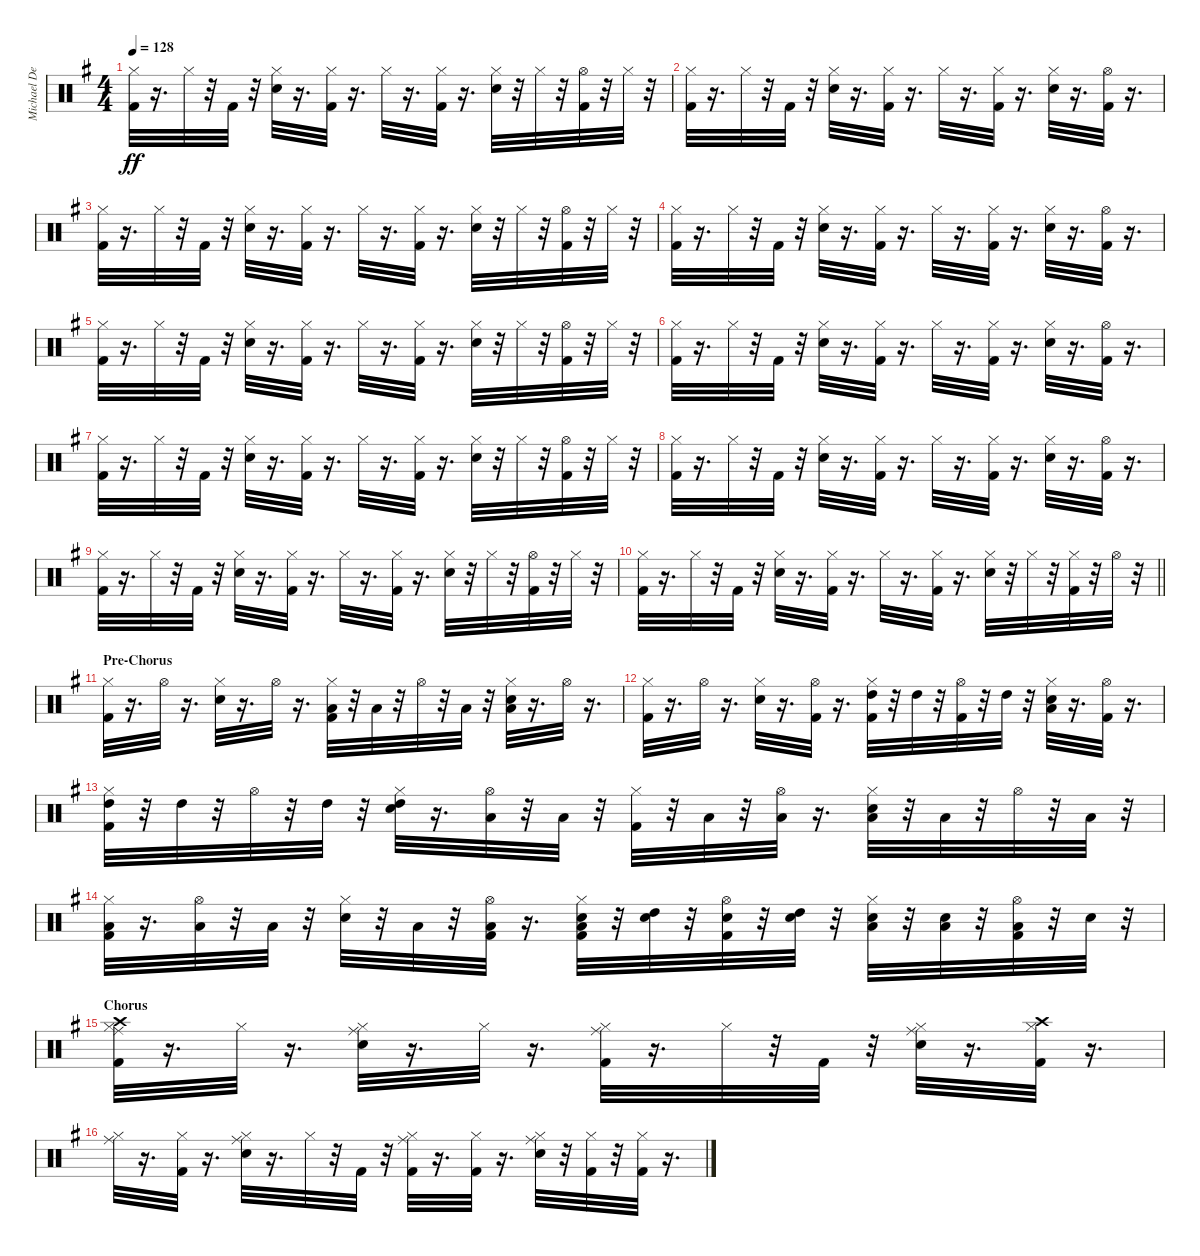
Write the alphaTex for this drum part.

\track ("Michael DeRosier" "Michael De") {instrument percussion}
\staff {score}
\articulation defaults
\ts (4 4)
\tempo 128
\clef neutral
\ks g
("Kick (hit) 2" "Hi-Hat (closed)").32{dy ff} r.16{d} "Hi-Hat (closed)".32 r.32 "Kick (hit) 2".32 r.32 ("Snare (hit) 2" "Hi-Hat (closed)").32 r.16{d} ("Kick (hit) 2" "Hi-Hat (closed)").32 r.16{d} "Hi-Hat (closed)".32 r.16{d} ("Kick (hit) 2" "Hi-Hat (closed)").32 r.16{d} ("Snare (hit) 2" "Hi-Hat (closed)").32 r.32 "Hi-Hat (closed)".32 r.32 ("Kick (hit) 2" "Hi-Hat (open)").32 r.32 "Hi-Hat (closed)".32 r.32 |
("Kick (hit) 2" "Hi-Hat (closed)").32 r.16{d} "Hi-Hat (closed)".32 r.32 "Kick (hit) 2".32 r.32 ("Snare (hit) 2" "Hi-Hat (closed)").32 r.16{d} ("Kick (hit) 2" "Hi-Hat (closed)").32 r.16{d} "Hi-Hat (closed)".32 r.16{d} ("Kick (hit) 2" "Hi-Hat (closed)").32 r.16{d} ("Snare (hit) 2" "Hi-Hat (closed)").32 r.16{d} ("Kick (hit) 2" "Hi-Hat (open)").32 r.16{d} |
("Kick (hit) 2" "Hi-Hat (closed)").32 r.16{d} "Hi-Hat (closed)".32 r.32 "Kick (hit) 2".32 r.32 ("Snare (hit) 2" "Hi-Hat (closed)").32 r.16{d} ("Kick (hit) 2" "Hi-Hat (closed)").32 r.16{d} "Hi-Hat (closed)".32 r.16{d} ("Kick (hit) 2" "Hi-Hat (closed)").32 r.16{d} ("Snare (hit) 2" "Hi-Hat (closed)").32 r.32 "Hi-Hat (closed)".32 r.32 ("Kick (hit) 2" "Hi-Hat (open)").32 r.32 "Hi-Hat (closed)".32 r.32 |
("Kick (hit) 2" "Hi-Hat (closed)").32 r.16{d} "Hi-Hat (closed)".32 r.32 "Kick (hit) 2".32 r.32 ("Snare (hit) 2" "Hi-Hat (closed)").32 r.16{d} ("Kick (hit) 2" "Hi-Hat (closed)").32 r.16{d} "Hi-Hat (closed)".32 r.16{d} ("Kick (hit) 2" "Hi-Hat (closed)").32 r.16{d} ("Snare (hit) 2" "Hi-Hat (closed)").32 r.16{d} ("Kick (hit) 2" "Hi-Hat (open)").32 r.16{d} |
("Kick (hit) 2" "Hi-Hat (closed)").32 r.16{d} "Hi-Hat (closed)".32 r.32 "Kick (hit) 2".32 r.32 ("Snare (hit) 2" "Hi-Hat (closed)").32 r.16{d} ("Kick (hit) 2" "Hi-Hat (closed)").32 r.16{d} "Hi-Hat (closed)".32 r.16{d} ("Kick (hit) 2" "Hi-Hat (closed)").32 r.16{d} ("Snare (hit) 2" "Hi-Hat (closed)").32 r.32 "Hi-Hat (closed)".32 r.32 ("Kick (hit) 2" "Hi-Hat (open)").32 r.32 "Hi-Hat (closed)".32 r.32 |
("Kick (hit) 2" "Hi-Hat (closed)").32 r.16{d} "Hi-Hat (closed)".32 r.32 "Kick (hit) 2".32 r.32 ("Snare (hit) 2" "Hi-Hat (closed)").32 r.16{d} ("Kick (hit) 2" "Hi-Hat (closed)").32 r.16{d} "Hi-Hat (closed)".32 r.16{d} ("Kick (hit) 2" "Hi-Hat (closed)").32 r.16{d} ("Snare (hit) 2" "Hi-Hat (closed)").32 r.16{d} ("Kick (hit) 2" "Hi-Hat (open)").32 r.16{d} |
("Kick (hit) 2" "Hi-Hat (closed)").32 r.16{d} "Hi-Hat (closed)".32 r.32 "Kick (hit) 2".32 r.32 ("Snare (hit) 2" "Hi-Hat (closed)").32 r.16{d} ("Kick (hit) 2" "Hi-Hat (closed)").32 r.16{d} "Hi-Hat (closed)".32 r.16{d} ("Kick (hit) 2" "Hi-Hat (closed)").32 r.16{d} ("Snare (hit) 2" "Hi-Hat (closed)").32 r.32 "Hi-Hat (closed)".32 r.32 ("Kick (hit) 2" "Hi-Hat (open)").32 r.32 "Hi-Hat (closed)".32 r.32 |
("Kick (hit) 2" "Hi-Hat (closed)").32 r.16{d} "Hi-Hat (closed)".32 r.32 "Kick (hit) 2".32 r.32 ("Snare (hit) 2" "Hi-Hat (closed)").32 r.16{d} ("Kick (hit) 2" "Hi-Hat (closed)").32 r.16{d} "Hi-Hat (closed)".32 r.16{d} ("Kick (hit) 2" "Hi-Hat (closed)").32 r.16{d} ("Snare (hit) 2" "Hi-Hat (closed)").32 r.16{d} ("Kick (hit) 2" "Hi-Hat (open)").32 r.16{d} |
("Kick (hit) 2" "Hi-Hat (closed)").32 r.16{d} "Hi-Hat (closed)".32 r.32 "Kick (hit) 2".32 r.32 ("Snare (hit) 2" "Hi-Hat (closed)").32 r.16{d} ("Kick (hit) 2" "Hi-Hat (closed)").32 r.16{d} "Hi-Hat (closed)".32 r.16{d} ("Kick (hit) 2" "Hi-Hat (closed)").32 r.16{d} ("Snare (hit) 2" "Hi-Hat (closed)").32 r.32 "Hi-Hat (closed)".32 r.32 ("Kick (hit) 2" "Hi-Hat (open)").32 r.32 "Hi-Hat (closed)".32 r.32 |
\barLineRight lightlight
("Kick (hit) 2" "Hi-Hat (closed)").32 r.16{d} "Hi-Hat (closed)".32 r.32 "Kick (hit) 2".32 r.32 ("Snare (hit) 2" "Hi-Hat (closed)").32 r.16{d} ("Kick (hit) 2" "Hi-Hat (closed)").32 r.16{d} "Hi-Hat (closed)".32 r.16{d} ("Kick (hit) 2" "Hi-Hat (closed)").32 r.16{d} ("Snare (hit) 2" "Hi-Hat (closed)").32 r.32 "Hi-Hat (closed)".32 r.32 ("Kick (hit) 2" "Hi-Hat (closed)").32 r.32 "Hi-Hat (open)".32 r.32 |
\section ("" "Pre-Chorus")
("Kick (hit) 2" "Hi-Hat (closed)").32 r.16{d} "Hi-Hat (open)".32 r.16{d} ("Snare (hit) 2" "Hi-Hat (closed)").32 r.16{d} "Hi-Hat (open)".32 r.16{d} ("Kick (hit) 2" "Hi-Hat (closed)" "Low Tom (hit)").32 r.32 "Low Tom (hit)".32 r.32 "Hi-Hat (open)".32 r.32 "Low Tom (hit)".32 r.32 ("Snare (hit) 2" "Hi-Hat (closed)" "Low Floor Tom (hit)").32 r.16{d} "Hi-Hat (open)".32 r.16{d} |
("Kick (hit) 2" "Hi-Hat (closed)").32 r.16{d} "Hi-Hat (open)".32 r.16{d} ("Snare (hit) 2" "Hi-Hat (closed)").32 r.16{d} ("Kick (hit) 2" "Hi-Hat (open)").32 r.16{d} ("Kick (hit) 2" "Hi-Hat (closed)" "High Tom (hit)").32 r.32 "High Tom (hit)".32 r.32 ("Kick (hit) 2" "Hi-Hat (open)").32 r.32 "High Tom (hit)".32 r.32 ("Snare (hit) 2" "Hi-Hat (closed)" "Low Tom (hit)").32 r.16{d} ("Kick (hit) 2" "Hi-Hat (open)").32 r.16{d} |
("Kick (hit) 2" "Hi-Hat (closed)" "High Tom (hit)").32 r.32 "High Tom (hit)".32 r.32 "Hi-Hat (open)".32 r.32 "High Tom (hit)".32 r.32 ("Snare (hit) 2" "Hi-Hat (closed)" "High Tom (hit)").32 r.16{d} ("Hi-Hat (open)" "Low Tom (hit)").32 r.32 "Low Tom (hit)".32 r.32 ("Kick (hit) 2" "Hi-Hat (closed)").32 r.32 "Low Tom (hit)".32 r.32 ("Hi-Hat (open)" "Low Tom (hit)").32 r.16{d} ("Snare (hit) 2" "Hi-Hat (closed)" "Low Tom (hit)").32 r.32 "Low Tom (hit)".32 r.32 "Hi-Hat (open)".32 r.32 "Low Tom (hit)".32 r.32 |
("Kick (hit) 2" "Hi-Hat (closed)" "Low Floor Tom (hit)").32 r.16{d} ("Hi-Hat (open)" "Low Floor Tom (hit)").32 r.32 "Low Floor Tom (hit)".32 r.32 ("Snare (hit) 2" "Hi-Hat (closed)").32 r.32 "Low Floor Tom (hit)".32 r.32 ("Kick (hit) 2" "Hi-Hat (open)" "Low Floor Tom (hit)").32 r.16{d} ("Kick (hit) 2" "Snare (hit) 2" "Hi-Hat (closed)" "Low Floor Tom (hit)").32 r.32 ("Snare (hit) 2" "High Tom (hit)").32 r.32 ("Kick (hit) 2" "Snare (hit) 2" "Hi-Hat (open)").32 r.32 ("Snare (hit) 2" "High Tom (hit)").32 r.32 ("Snare (hit) 2" "Hi-Hat (closed)" "Low Tom (hit)").32 r.32 ("Snare (hit) 2" "Low Tom (hit)").32 r.32 ("Kick (hit) 2" "Hi-Hat (open)" "Low Floor Tom (hit)").32 r.32 "Snare (hit) 2".32 r.32 |
\section ("" "Chorus")
("Kick (hit) 2" "Hi-Hat (closed)" "Crash high (hit)" "Ride (middle)").32 r.16{d} "Hi-Hat (closed)".32 r.16{d} ("Snare (hit) 2" "Hi-Hat (closed)" "Ride (middle)").32 r.16{d} "Hi-Hat (closed)".32 r.16{d} ("Kick (hit) 2" "Hi-Hat (closed)" "Ride (middle)").32 r.16{d} "Hi-Hat (closed)".32 r.32 "Kick (hit) 2".32 r.32 ("Snare (hit) 2" "Hi-Hat (closed)" "Ride (middle)").32 r.16{d} ("Kick (hit) 2" "Hi-Hat (closed)" "Crash high (hit)").32 r.16{d} |
("Hi-Hat (closed)" "Ride (middle)").32 r.16{d} ("Kick (hit) 2" "Hi-Hat (closed)").32 r.16{d} ("Snare (hit) 2" "Hi-Hat (closed)" "Ride (middle)").32 r.16{d} "Hi-Hat (closed)".32 r.32 "Kick (hit) 2".32 r.32 ("Kick (hit) 2" "Hi-Hat (closed)" "Ride (middle)").32 r.16{d} ("Kick (hit) 2" "Hi-Hat (closed)").32 r.16{d} ("Snare (hit) 2" "Hi-Hat (closed)" "Ride (middle)").32 r.32 ("Kick (hit) 2" "Hi-Hat (closed)").32 r.32 ("Kick (hit) 2" "Hi-Hat (closed)").32 r.16{d}
